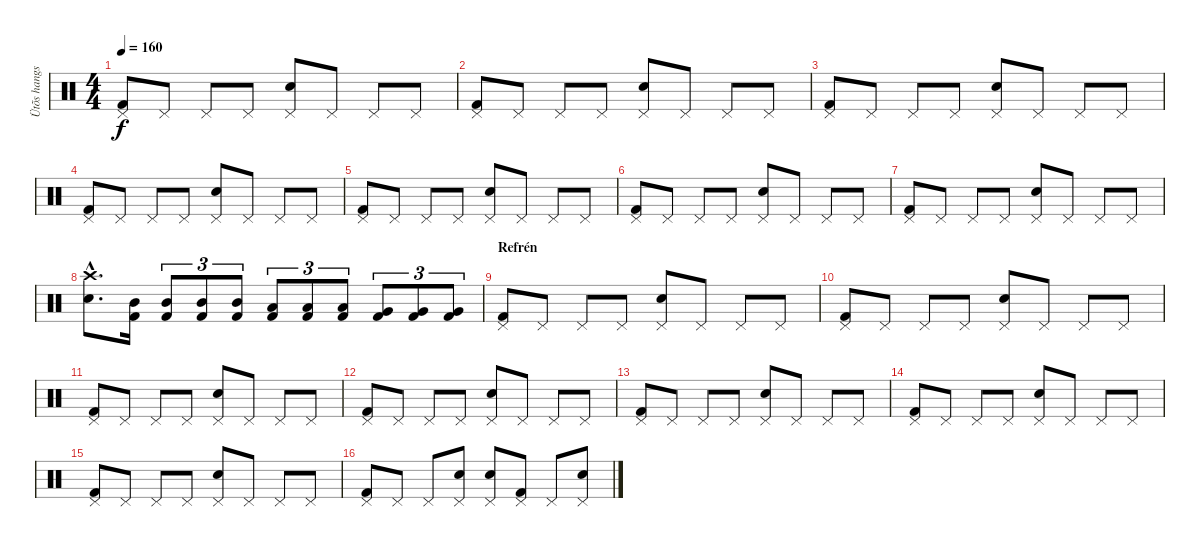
\track ("Ütõs hangszer" "Ütõs hangs") {instrument percussion}
\staff {score}
\articulation defaults
\ts (4 4)
\tempo 160
\clef neutral
\ks c
("Pedal Hi-Hat (hit)" "Kick (hit) 2").8{dy f} "Pedal Hi-Hat (hit)".8 "Pedal Hi-Hat (hit)".8 "Pedal Hi-Hat (hit)".8 ("Pedal Hi-Hat (hit)" "Snare (hit) 2").8 "Pedal Hi-Hat (hit)".8 "Pedal Hi-Hat (hit)".8 "Pedal Hi-Hat (hit)".8 |
("Pedal Hi-Hat (hit)" "Kick (hit) 2").8 "Pedal Hi-Hat (hit)".8 "Pedal Hi-Hat (hit)".8 "Pedal Hi-Hat (hit)".8 ("Pedal Hi-Hat (hit)" "Snare (hit) 2").8 "Pedal Hi-Hat (hit)".8 "Pedal Hi-Hat (hit)".8 "Pedal Hi-Hat (hit)".8 |
("Pedal Hi-Hat (hit)" "Kick (hit) 2").8 "Pedal Hi-Hat (hit)".8 "Pedal Hi-Hat (hit)".8 "Pedal Hi-Hat (hit)".8 ("Pedal Hi-Hat (hit)" "Snare (hit) 2").8 "Pedal Hi-Hat (hit)".8 "Pedal Hi-Hat (hit)".8 "Pedal Hi-Hat (hit)".8 |
("Pedal Hi-Hat (hit)" "Kick (hit) 2").8 "Pedal Hi-Hat (hit)".8 "Pedal Hi-Hat (hit)".8 "Pedal Hi-Hat (hit)".8 ("Pedal Hi-Hat (hit)" "Snare (hit) 2").8 "Pedal Hi-Hat (hit)".8 "Pedal Hi-Hat (hit)".8 "Pedal Hi-Hat (hit)".8 |
("Pedal Hi-Hat (hit)" "Kick (hit) 2").8 "Pedal Hi-Hat (hit)".8 "Pedal Hi-Hat (hit)".8 "Pedal Hi-Hat (hit)".8 ("Pedal Hi-Hat (hit)" "Snare (hit) 2").8 "Pedal Hi-Hat (hit)".8 "Pedal Hi-Hat (hit)".8 "Pedal Hi-Hat (hit)".8 |
("Pedal Hi-Hat (hit)" "Kick (hit) 2").8 "Pedal Hi-Hat (hit)".8 "Pedal Hi-Hat (hit)".8 "Pedal Hi-Hat (hit)".8 ("Pedal Hi-Hat (hit)" "Snare (hit) 2").8 "Pedal Hi-Hat (hit)".8 "Pedal Hi-Hat (hit)".8 "Pedal Hi-Hat (hit)".8 |
("Pedal Hi-Hat (hit)" "Kick (hit) 2").8 "Pedal Hi-Hat (hit)".8 "Pedal Hi-Hat (hit)".8 "Pedal Hi-Hat (hit)".8 ("Pedal Hi-Hat (hit)" "Snare (hit) 2").8 "Pedal Hi-Hat (hit)".8 "Pedal Hi-Hat (hit)".8 "Pedal Hi-Hat (hit)".8 |
("Crash high (hit)"{hac} "Snare (hit) 2"{hac}).8{d} ("Mid Tom (hit)" "Kick (hit) 2").16 ("Mid Tom (hit)" "Kick (hit) 2").8{tu (3 2)} ("Mid Tom (hit)" "Kick (hit) 2").8{tu (3 2)} ("Mid Tom (hit)" "Kick (hit) 2").8{tu (3 2)} ("Low Tom (hit)" "Kick (hit) 2").8{tu (3 2)} ("Low Tom (hit)" "Kick (hit) 2").8{tu (3 2)} ("Low Tom (hit)" "Kick (hit) 2").8{tu (3 2)} ("Very Low Tom (hit)" "Kick (hit) 2").8{tu (3 2)} ("Very Low Tom (hit)" "Kick (hit) 2").8{tu (3 2)} ("Very Low Tom (hit)" "Kick (hit) 2").8{tu (3 2)} |
\section ("" "Refrén")
("Pedal Hi-Hat (hit)" "Kick (hit) 2").8 "Pedal Hi-Hat (hit)".8 "Pedal Hi-Hat (hit)".8 "Pedal Hi-Hat (hit)".8 ("Pedal Hi-Hat (hit)" "Snare (hit) 2").8 "Pedal Hi-Hat (hit)".8 "Pedal Hi-Hat (hit)".8 "Pedal Hi-Hat (hit)".8 |
("Pedal Hi-Hat (hit)" "Kick (hit) 2").8 "Pedal Hi-Hat (hit)".8 "Pedal Hi-Hat (hit)".8 "Pedal Hi-Hat (hit)".8 ("Pedal Hi-Hat (hit)" "Snare (hit) 2").8 "Pedal Hi-Hat (hit)".8 "Pedal Hi-Hat (hit)".8 "Pedal Hi-Hat (hit)".8 |
("Pedal Hi-Hat (hit)" "Kick (hit) 2").8 "Pedal Hi-Hat (hit)".8 "Pedal Hi-Hat (hit)".8 "Pedal Hi-Hat (hit)".8 ("Pedal Hi-Hat (hit)" "Snare (hit) 2").8 "Pedal Hi-Hat (hit)".8 "Pedal Hi-Hat (hit)".8 "Pedal Hi-Hat (hit)".8 |
("Pedal Hi-Hat (hit)" "Kick (hit) 2").8 "Pedal Hi-Hat (hit)".8 "Pedal Hi-Hat (hit)".8 "Pedal Hi-Hat (hit)".8 ("Pedal Hi-Hat (hit)" "Snare (hit) 2").8 "Pedal Hi-Hat (hit)".8 "Pedal Hi-Hat (hit)".8 "Pedal Hi-Hat (hit)".8 |
("Pedal Hi-Hat (hit)" "Kick (hit) 2").8 "Pedal Hi-Hat (hit)".8 "Pedal Hi-Hat (hit)".8 "Pedal Hi-Hat (hit)".8 ("Pedal Hi-Hat (hit)" "Snare (hit) 2").8 "Pedal Hi-Hat (hit)".8 "Pedal Hi-Hat (hit)".8 "Pedal Hi-Hat (hit)".8 |
("Pedal Hi-Hat (hit)" "Kick (hit) 2").8 "Pedal Hi-Hat (hit)".8 "Pedal Hi-Hat (hit)".8 "Pedal Hi-Hat (hit)".8 ("Pedal Hi-Hat (hit)" "Snare (hit) 2").8 "Pedal Hi-Hat (hit)".8 "Pedal Hi-Hat (hit)".8 "Pedal Hi-Hat (hit)".8 |
("Pedal Hi-Hat (hit)" "Kick (hit) 2").8 "Pedal Hi-Hat (hit)".8 "Pedal Hi-Hat (hit)".8 "Pedal Hi-Hat (hit)".8 ("Pedal Hi-Hat (hit)" "Snare (hit) 2").8 "Pedal Hi-Hat (hit)".8 "Pedal Hi-Hat (hit)".8 "Pedal Hi-Hat (hit)".8 |
("Pedal Hi-Hat (hit)" "Kick (hit) 2").8 "Pedal Hi-Hat (hit)".8 "Pedal Hi-Hat (hit)".8 ("Pedal Hi-Hat (hit)" "Snare (hit) 2").8 ("Pedal Hi-Hat (hit)" "Snare (hit) 2").8 ("Pedal Hi-Hat (hit)" "Kick (hit) 2").8 "Pedal Hi-Hat (hit)".8 ("Pedal Hi-Hat (hit)" "Snare (hit) 2").8
